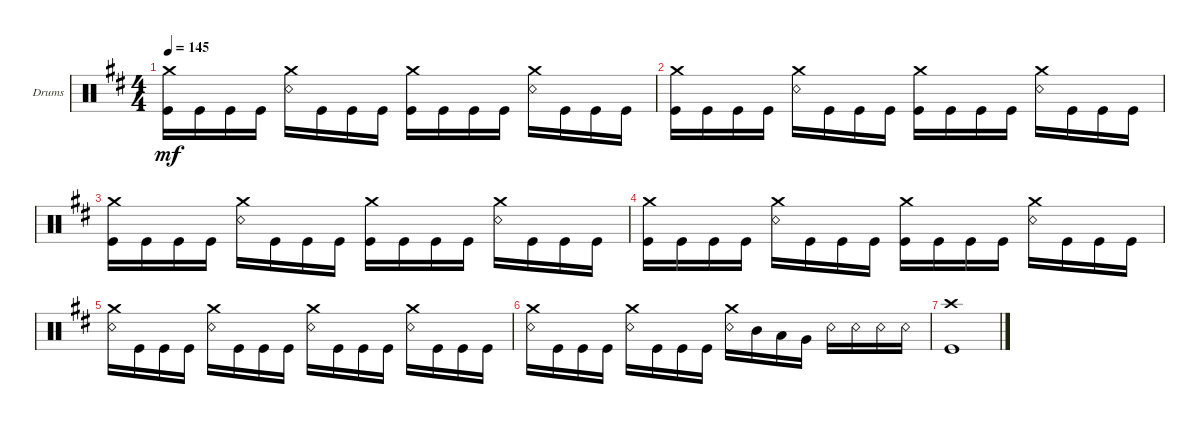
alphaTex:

\defaultSystemsLayout 4
\bracketExtendMode groupsimilarinstruments
\firstSystemTrackNameOrientation horizontal
\otherSystemsTrackNameOrientation horizontal
\track ("Drumkit" "Drums") {instrument percussion}
\staff {score}
\articulation defaults
\ts (4 4)
\tempo 145
\clef neutral
\ks bminor
("Kick (hit)" "Crash medium (hit)").16{dy mf} "Kick (hit)".16 "Kick (hit)".16 "Kick (hit)".16 ("Snare (rim shot)" "Crash medium (hit)").16 "Kick (hit)".16 "Kick (hit)".16 "Kick (hit)".16 ("Kick (hit)" "Crash medium (hit)").16 "Kick (hit)".16 "Kick (hit)".16 "Kick (hit)".16 ("Snare (rim shot)" "Crash medium (hit)").16 "Kick (hit)".16 "Kick (hit)".16 "Kick (hit)".16 |
("Kick (hit)" "Crash medium (hit)").16 "Kick (hit)".16 "Kick (hit)".16 "Kick (hit)".16 ("Snare (rim shot)" "Crash medium (hit)").16 "Kick (hit)".16 "Kick (hit)".16 "Kick (hit)".16 ("Kick (hit)" "Crash medium (hit)").16 "Kick (hit)".16 "Kick (hit)".16 "Kick (hit)".16 ("Snare (rim shot)" "Crash medium (hit)").16 "Kick (hit)".16 "Kick (hit)".16 "Kick (hit)".16 |
("Kick (hit)" "Crash medium (hit)").16 "Kick (hit)".16 "Kick (hit)".16 "Kick (hit)".16 ("Snare (rim shot)" "Crash medium (hit)").16 "Kick (hit)".16 "Kick (hit)".16 "Kick (hit)".16 ("Kick (hit)" "Crash medium (hit)").16 "Kick (hit)".16 "Kick (hit)".16 "Kick (hit)".16 ("Snare (rim shot)" "Crash medium (hit)").16 "Kick (hit)".16 "Kick (hit)".16 "Kick (hit)".16 |
("Kick (hit)" "Crash medium (hit)").16 "Kick (hit)".16 "Kick (hit)".16 "Kick (hit)".16 ("Snare (rim shot)" "Crash medium (hit)").16 "Kick (hit)".16 "Kick (hit)".16 "Kick (hit)".16 ("Kick (hit)" "Crash medium (hit)").16 "Kick (hit)".16 "Kick (hit)".16 "Kick (hit)".16 ("Snare (rim shot)" "Crash medium (hit)").16 "Kick (hit)".16 "Kick (hit)".16 "Kick (hit)".16 |
("Snare (rim shot)" "Crash medium (hit)").16 "Kick (hit)".16 "Kick (hit)".16 "Kick (hit)".16 ("Snare (rim shot)" "Crash medium (hit)").16 "Kick (hit)".16 "Kick (hit)".16 "Kick (hit)".16 ("Snare (rim shot)" "Crash medium (hit)").16 "Kick (hit)".16 "Kick (hit)".16 "Kick (hit)".16 ("Snare (rim shot)" "Crash medium (hit)").16 "Kick (hit)".16 "Kick (hit)".16 "Kick (hit)".16 |
("Snare (rim shot)" "Crash medium (hit)").16 "Kick (hit)".16 "Kick (hit)".16 "Kick (hit)".16 ("Snare (rim shot)" "Crash medium (hit)").16 "Kick (hit)".16 "Kick (hit)".16 "Kick (hit)".16 ("Snare (rim shot)" "Crash medium (hit)").16 "Mid Tom (hit)".16 "Low Tom (hit)".16 "Very Low Tom (hit)".16 "Snare (rim shot)".16 "Snare (rim shot)".16 "Snare (rim shot)".16 "Snare (rim shot)".16 |
("Kick (hit)" "Crash high (hit)").1
